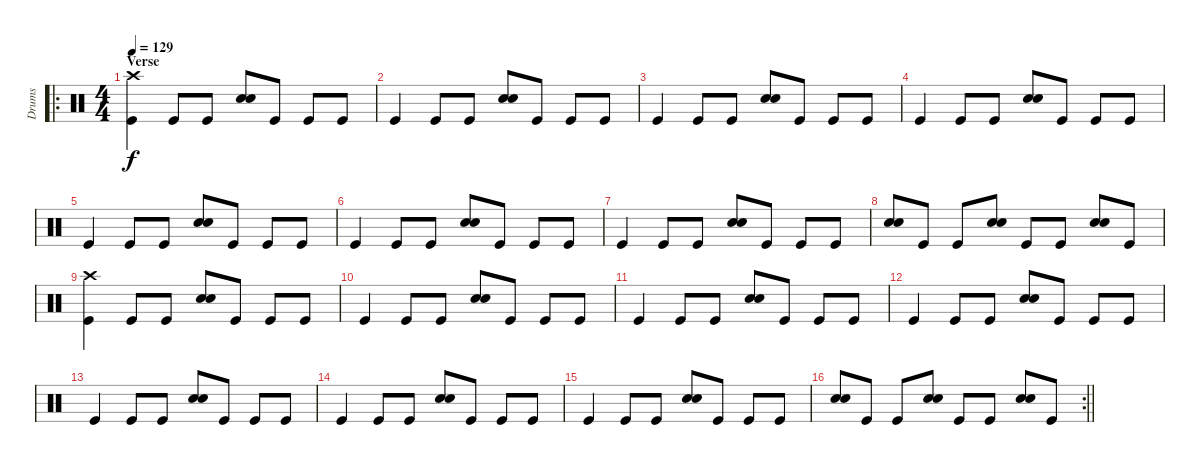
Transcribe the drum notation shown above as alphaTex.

\track ("Drums" "Drums") {instrument percussion}
\staff {score}
\articulation defaults
\ro
\ts (4 4)
\section ("" "Verse")
\tempo 129
\clef neutral
\ks c
("Crash high (hit)" "Kick (hit)").4{dy f} "Kick (hit)".8 "Kick (hit)".8 ("Snare (hit) 2" "Electric Snare (hit)").8 "Kick (hit)".8 "Kick (hit)".8 "Kick (hit)".8 |
"Kick (hit)".4 "Kick (hit)".8 "Kick (hit)".8 ("Snare (hit) 2" "Electric Snare (hit)").8 "Kick (hit)".8 "Kick (hit)".8 "Kick (hit)".8 |
"Kick (hit)".4 "Kick (hit)".8 "Kick (hit)".8 ("Snare (hit) 2" "Electric Snare (hit)").8 "Kick (hit)".8 "Kick (hit)".8 "Kick (hit)".8 |
"Kick (hit)".4 "Kick (hit)".8 "Kick (hit)".8 ("Snare (hit) 2" "Electric Snare (hit)").8 "Kick (hit)".8 "Kick (hit)".8 "Kick (hit)".8 |
"Kick (hit)".4 "Kick (hit)".8 "Kick (hit)".8 ("Snare (hit) 2" "Electric Snare (hit)").8 "Kick (hit)".8 "Kick (hit)".8 "Kick (hit)".8 |
"Kick (hit)".4 "Kick (hit)".8 "Kick (hit)".8 ("Snare (hit) 2" "Electric Snare (hit)").8 "Kick (hit)".8 "Kick (hit)".8 "Kick (hit)".8 |
"Kick (hit)".4 "Kick (hit)".8 "Kick (hit)".8 ("Snare (hit) 2" "Electric Snare (hit)").8 "Kick (hit)".8 "Kick (hit)".8 "Kick (hit)".8 |
("Snare (hit) 2" "Electric Snare (hit)").8 "Kick (hit)".8 "Kick (hit)".8 ("Snare (hit) 2" "Electric Snare (hit)").8 "Kick (hit)".8 "Kick (hit)".8 ("Snare (hit) 2" "Electric Snare (hit)").8 "Kick (hit)".8 |
("Crash high (hit)" "Kick (hit)").4 "Kick (hit)".8 "Kick (hit)".8 ("Snare (hit) 2" "Electric Snare (hit)").8 "Kick (hit)".8 "Kick (hit)".8 "Kick (hit)".8 |
"Kick (hit)".4 "Kick (hit)".8 "Kick (hit)".8 ("Snare (hit) 2" "Electric Snare (hit)").8 "Kick (hit)".8 "Kick (hit)".8 "Kick (hit)".8 |
"Kick (hit)".4 "Kick (hit)".8 "Kick (hit)".8 ("Snare (hit) 2" "Electric Snare (hit)").8 "Kick (hit)".8 "Kick (hit)".8 "Kick (hit)".8 |
"Kick (hit)".4 "Kick (hit)".8 "Kick (hit)".8 ("Snare (hit) 2" "Electric Snare (hit)").8 "Kick (hit)".8 "Kick (hit)".8 "Kick (hit)".8 |
"Kick (hit)".4 "Kick (hit)".8 "Kick (hit)".8 ("Snare (hit) 2" "Electric Snare (hit)").8 "Kick (hit)".8 "Kick (hit)".8 "Kick (hit)".8 |
"Kick (hit)".4 "Kick (hit)".8 "Kick (hit)".8 ("Snare (hit) 2" "Electric Snare (hit)").8 "Kick (hit)".8 "Kick (hit)".8 "Kick (hit)".8 |
"Kick (hit)".4 "Kick (hit)".8 "Kick (hit)".8 ("Snare (hit) 2" "Electric Snare (hit)").8 "Kick (hit)".8 "Kick (hit)".8 "Kick (hit)".8 |
\rc 2
\barLineRight lightlight
("Snare (hit) 2" "Electric Snare (hit)").8 "Kick (hit)".8 "Kick (hit)".8 ("Snare (hit) 2" "Electric Snare (hit)").8 "Kick (hit)".8 "Kick (hit)".8 ("Snare (hit) 2" "Electric Snare (hit)").8 "Kick (hit)".8
